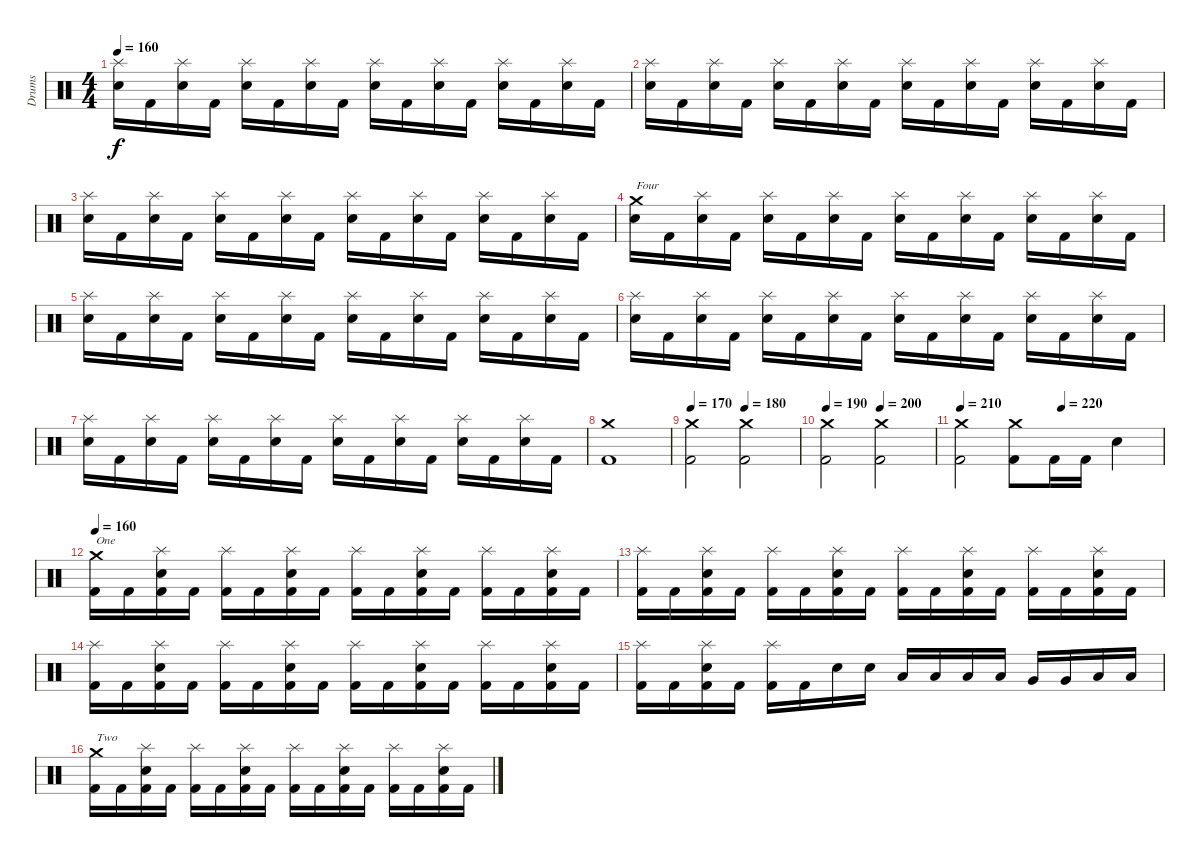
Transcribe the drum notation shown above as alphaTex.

\track ("Drums" "Drums") {instrument percussion}
\staff {score}
\articulation defaults
\ts (4 4)
\tempo 160
\clef neutral
\ks c
("Splash (hit)" "Snare (hit) 2").16{dy f} "Kick (hit) 2".16 ("Splash (hit)" "Snare (hit) 2").16 "Kick (hit) 2".16 ("Splash (hit)" "Snare (hit) 2").16 "Kick (hit) 2".16 ("Splash (hit)" "Snare (hit) 2").16 "Kick (hit) 2".16 ("Splash (hit)" "Snare (hit) 2").16 "Kick (hit) 2".16 ("Splash (hit)" "Snare (hit) 2").16 "Kick (hit) 2".16 ("Splash (hit)" "Snare (hit) 2").16 "Kick (hit) 2".16 ("Splash (hit)" "Snare (hit) 2").16 "Kick (hit) 2".16 |
("Splash (hit)" "Snare (hit) 2").16 "Kick (hit) 2".16 ("Splash (hit)" "Snare (hit) 2").16 "Kick (hit) 2".16 ("Splash (hit)" "Snare (hit) 2").16 "Kick (hit) 2".16 ("Splash (hit)" "Snare (hit) 2").16 "Kick (hit) 2".16 ("Splash (hit)" "Snare (hit) 2").16 "Kick (hit) 2".16 ("Splash (hit)" "Snare (hit) 2").16 "Kick (hit) 2".16 ("Splash (hit)" "Snare (hit) 2").16 "Kick (hit) 2".16 ("Splash (hit)" "Snare (hit) 2").16 "Kick (hit) 2".16 |
("Splash (hit)" "Snare (hit) 2").16 "Kick (hit) 2".16 ("Splash (hit)" "Snare (hit) 2").16 "Kick (hit) 2".16 ("Splash (hit)" "Snare (hit) 2").16 "Kick (hit) 2".16 ("Splash (hit)" "Snare (hit) 2").16 "Kick (hit) 2".16 ("Splash (hit)" "Snare (hit) 2").16 "Kick (hit) 2".16 ("Splash (hit)" "Snare (hit) 2").16 "Kick (hit) 2".16 ("Splash (hit)" "Snare (hit) 2").16 "Kick (hit) 2".16 ("Splash (hit)" "Snare (hit) 2").16 "Kick (hit) 2".16 |
("Crash medium (hit)" "Snare (hit) 2").16{txt "Four"} "Kick (hit) 2".16 ("Splash (hit)" "Snare (hit) 2").16 "Kick (hit) 2".16 ("Splash (hit)" "Snare (hit) 2").16 "Kick (hit) 2".16 ("Splash (hit)" "Snare (hit) 2").16 "Kick (hit) 2".16 ("Splash (hit)" "Snare (hit) 2").16 "Kick (hit) 2".16 ("Splash (hit)" "Snare (hit) 2").16 "Kick (hit) 2".16 ("Splash (hit)" "Snare (hit) 2").16 "Kick (hit) 2".16 ("Splash (hit)" "Snare (hit) 2").16 "Kick (hit) 2".16 |
("Splash (hit)" "Snare (hit) 2").16 "Kick (hit) 2".16 ("Splash (hit)" "Snare (hit) 2").16 "Kick (hit) 2".16 ("Splash (hit)" "Snare (hit) 2").16 "Kick (hit) 2".16 ("Splash (hit)" "Snare (hit) 2").16 "Kick (hit) 2".16 ("Splash (hit)" "Snare (hit) 2").16 "Kick (hit) 2".16 ("Splash (hit)" "Snare (hit) 2").16 "Kick (hit) 2".16 ("Splash (hit)" "Snare (hit) 2").16 "Kick (hit) 2".16 ("Splash (hit)" "Snare (hit) 2").16 "Kick (hit) 2".16 |
("Splash (hit)" "Snare (hit) 2").16 "Kick (hit) 2".16 ("Splash (hit)" "Snare (hit) 2").16 "Kick (hit) 2".16 ("Splash (hit)" "Snare (hit) 2").16 "Kick (hit) 2".16 ("Splash (hit)" "Snare (hit) 2").16 "Kick (hit) 2".16 ("Splash (hit)" "Snare (hit) 2").16 "Kick (hit) 2".16 ("Splash (hit)" "Snare (hit) 2").16 "Kick (hit) 2".16 ("Splash (hit)" "Snare (hit) 2").16 "Kick (hit) 2".16 ("Splash (hit)" "Snare (hit) 2").16 "Kick (hit) 2".16 |
("Splash (hit)" "Snare (hit) 2").16 "Kick (hit) 2".16 ("Splash (hit)" "Snare (hit) 2").16 "Kick (hit) 2".16 ("Splash (hit)" "Snare (hit) 2").16 "Kick (hit) 2".16 ("Splash (hit)" "Snare (hit) 2").16 "Kick (hit) 2".16 ("Splash (hit)" "Snare (hit) 2").16 "Kick (hit) 2".16 ("Splash (hit)" "Snare (hit) 2").16 "Kick (hit) 2".16 ("Splash (hit)" "Snare (hit) 2").16 "Kick (hit) 2".16 ("Splash (hit)" "Snare (hit) 2").16 "Kick (hit) 2".16 |
("Crash medium (hit)" "Kick (hit) 2").1 |
\tempo 170
\tempo (180 0.5)
("Crash medium (hit)" "Kick (hit) 2").2 ("Crash medium (hit)" "Kick (hit) 2").2 |
\tempo 190
\tempo (200 0.5)
("Crash medium (hit)" "Kick (hit) 2").2 ("Crash medium (hit)" "Kick (hit) 2").2 |
\tempo 210
\tempo (220 0.5)
("Crash medium (hit)" "Kick (hit) 2").2 ("Crash medium (hit)" "Kick (hit) 2").8 "Kick (hit) 2".16 "Kick (hit) 2".16 "Snare (hit) 2".4 |
\tempo 160
("Crash medium (hit)" "Kick (hit) 2").16{txt "One"} "Kick (hit) 2".16 ("Splash (hit)" "Snare (hit) 2" "Kick (hit) 2").16 "Kick (hit) 2".16 ("Splash (hit)" "Kick (hit) 2").16 "Kick (hit) 2".16 ("Splash (hit)" "Snare (hit) 2" "Kick (hit) 2").16 "Kick (hit) 2".16 ("Splash (hit)" "Kick (hit) 2").16 "Kick (hit) 2".16 ("Splash (hit)" "Snare (hit) 2" "Kick (hit) 2").16 "Kick (hit) 2".16 ("Splash (hit)" "Kick (hit) 2").16 "Kick (hit) 2".16 ("Splash (hit)" "Snare (hit) 2" "Kick (hit) 2").16 "Kick (hit) 2".16 |
("Splash (hit)" "Kick (hit) 2").16 "Kick (hit) 2".16 ("Splash (hit)" "Snare (hit) 2" "Kick (hit) 2").16 "Kick (hit) 2".16 ("Splash (hit)" "Kick (hit) 2").16 "Kick (hit) 2".16 ("Splash (hit)" "Snare (hit) 2" "Kick (hit) 2").16 "Kick (hit) 2".16 ("Splash (hit)" "Kick (hit) 2").16 "Kick (hit) 2".16 ("Splash (hit)" "Snare (hit) 2" "Kick (hit) 2").16 "Kick (hit) 2".16 ("Splash (hit)" "Kick (hit) 2").16 "Kick (hit) 2".16 ("Splash (hit)" "Snare (hit) 2" "Kick (hit) 2").16 "Kick (hit) 2".16 |
("Splash (hit)" "Kick (hit) 2").16 "Kick (hit) 2".16 ("Splash (hit)" "Snare (hit) 2" "Kick (hit) 2").16 "Kick (hit) 2".16 ("Splash (hit)" "Kick (hit) 2").16 "Kick (hit) 2".16 ("Splash (hit)" "Snare (hit) 2" "Kick (hit) 2").16 "Kick (hit) 2".16 ("Splash (hit)" "Kick (hit) 2").16 "Kick (hit) 2".16 ("Splash (hit)" "Snare (hit) 2" "Kick (hit) 2").16 "Kick (hit) 2".16 ("Splash (hit)" "Kick (hit) 2").16 "Kick (hit) 2".16 ("Splash (hit)" "Snare (hit) 2" "Kick (hit) 2").16 "Kick (hit) 2".16 |
("Splash (hit)" "Kick (hit) 2").16 "Kick (hit) 2".16 ("Splash (hit)" "Snare (hit) 2" "Kick (hit) 2").16 "Kick (hit) 2".16 ("Splash (hit)" "Kick (hit) 2").16 "Kick (hit) 2".16 "Snare (hit) 2".16 "Snare (hit) 2".16 "Low Tom (hit)".16 "Low Tom (hit)".16 "Low Tom (hit)".16 "Low Tom (hit)".16 "Very Low Tom (hit)".16 "Very Low Tom (hit)".16 "Low Floor Tom (hit)".16 "Low Floor Tom (hit)".16 |
("Crash medium (hit)" "Kick (hit) 2").16{txt "Two"} "Kick (hit) 2".16 ("Splash (hit)" "Snare (hit) 2" "Kick (hit) 2").16 "Kick (hit) 2".16 ("Splash (hit)" "Kick (hit) 2").16 "Kick (hit) 2".16 ("Splash (hit)" "Snare (hit) 2" "Kick (hit) 2").16 "Kick (hit) 2".16 ("Splash (hit)" "Kick (hit) 2").16 "Kick (hit) 2".16 ("Splash (hit)" "Snare (hit) 2" "Kick (hit) 2").16 "Kick (hit) 2".16 ("Splash (hit)" "Kick (hit) 2").16 "Kick (hit) 2".16 ("Splash (hit)" "Snare (hit) 2" "Kick (hit) 2").16 "Kick (hit) 2".16
